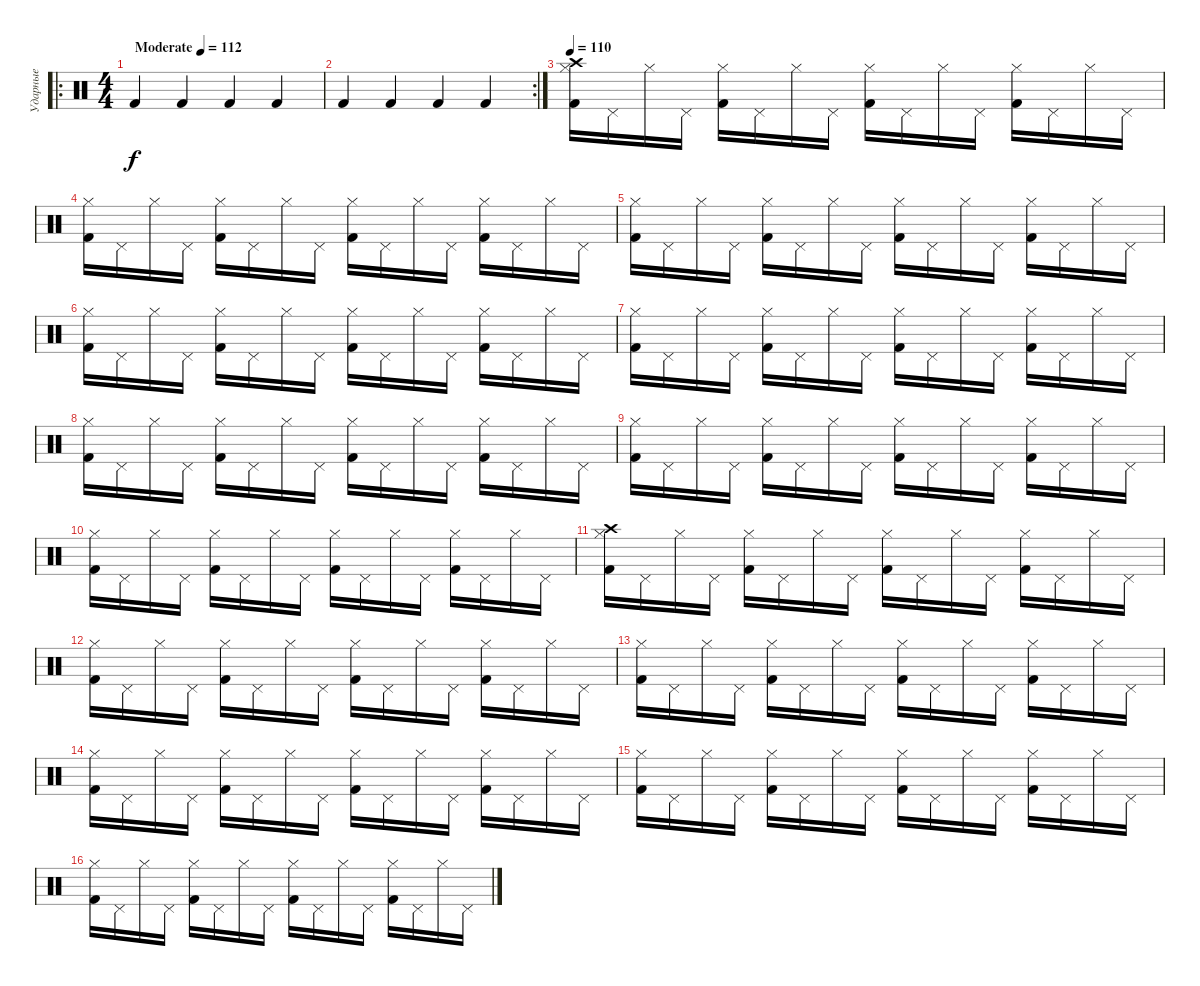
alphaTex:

\track ("Ударные" "Ударные") {instrument percussion}
\staff {score}
\articulation defaults
\ro
\ts (4 4)
\tempo (112 "Moderate")
\clef neutral
\ks c "Kick (hit) 2".4{dy f} "Kick (hit) 2".4 "Kick (hit) 2".4 "Kick (hit) 2".4
|
\rc 2 "Kick (hit) 2".4 "Kick (hit) 2".4 "Kick (hit) 2".4 "Kick (hit) 2".4
|
\tempo 112
\tempo 110
("Crash high (hit)" "Hi-Hat (closed)" "Kick (hit) 2").16 "Pedal Hi-Hat (hit)".16 "Hi-Hat (closed)".16 "Pedal Hi-Hat (hit)".16 ("Hi-Hat (closed)" "Kick (hit) 2").16 "Pedal Hi-Hat (hit)".16 "Hi-Hat (closed)".16 "Pedal Hi-Hat (hit)".16 ("Hi-Hat (closed)" "Kick (hit) 2").16 "Pedal Hi-Hat (hit)".16 "Hi-Hat (closed)".16 "Pedal Hi-Hat (hit)".16 ("Hi-Hat (closed)" "Kick (hit) 2").16 "Pedal Hi-Hat (hit)".16 "Hi-Hat (closed)".16 "Pedal Hi-Hat (hit)".16 |
("Hi-Hat (closed)" "Kick (hit) 2").16 "Pedal Hi-Hat (hit)".16 "Hi-Hat (closed)".16 "Pedal Hi-Hat (hit)".16 ("Hi-Hat (closed)" "Kick (hit) 2").16 "Pedal Hi-Hat (hit)".16 "Hi-Hat (closed)".16 "Pedal Hi-Hat (hit)".16 ("Hi-Hat (closed)" "Kick (hit) 2").16 "Pedal Hi-Hat (hit)".16 "Hi-Hat (closed)".16 "Pedal Hi-Hat (hit)".16 ("Hi-Hat (closed)" "Kick (hit) 2").16 "Pedal Hi-Hat (hit)".16 "Hi-Hat (closed)".16 "Pedal Hi-Hat (hit)".16 |
("Hi-Hat (closed)" "Kick (hit) 2").16 "Pedal Hi-Hat (hit)".16 "Hi-Hat (closed)".16 "Pedal Hi-Hat (hit)".16 ("Hi-Hat (closed)" "Kick (hit) 2").16 "Pedal Hi-Hat (hit)".16 "Hi-Hat (closed)".16 "Pedal Hi-Hat (hit)".16 ("Hi-Hat (closed)" "Kick (hit) 2").16 "Pedal Hi-Hat (hit)".16 "Hi-Hat (closed)".16 "Pedal Hi-Hat (hit)".16 ("Hi-Hat (closed)" "Kick (hit) 2").16 "Pedal Hi-Hat (hit)".16 "Hi-Hat (closed)".16 "Pedal Hi-Hat (hit)".16 |
("Hi-Hat (closed)" "Kick (hit) 2").16 "Pedal Hi-Hat (hit)".16 "Hi-Hat (closed)".16 "Pedal Hi-Hat (hit)".16 ("Hi-Hat (closed)" "Kick (hit) 2").16 "Pedal Hi-Hat (hit)".16 "Hi-Hat (closed)".16 "Pedal Hi-Hat (hit)".16 ("Hi-Hat (closed)" "Kick (hit) 2").16 "Pedal Hi-Hat (hit)".16 "Hi-Hat (closed)".16 "Pedal Hi-Hat (hit)".16 ("Hi-Hat (closed)" "Kick (hit) 2").16 "Pedal Hi-Hat (hit)".16 "Hi-Hat (closed)".16 "Pedal Hi-Hat (hit)".16 |
("Hi-Hat (closed)" "Kick (hit) 2").16 "Pedal Hi-Hat (hit)".16 "Hi-Hat (closed)".16 "Pedal Hi-Hat (hit)".16 ("Hi-Hat (closed)" "Kick (hit) 2").16 "Pedal Hi-Hat (hit)".16 "Hi-Hat (closed)".16 "Pedal Hi-Hat (hit)".16 ("Hi-Hat (closed)" "Kick (hit) 2").16 "Pedal Hi-Hat (hit)".16 "Hi-Hat (closed)".16 "Pedal Hi-Hat (hit)".16 ("Hi-Hat (closed)" "Kick (hit) 2").16 "Pedal Hi-Hat (hit)".16 "Hi-Hat (closed)".16 "Pedal Hi-Hat (hit)".16 |
("Hi-Hat (closed)" "Kick (hit) 2").16 "Pedal Hi-Hat (hit)".16 "Hi-Hat (closed)".16 "Pedal Hi-Hat (hit)".16 ("Hi-Hat (closed)" "Kick (hit) 2").16 "Pedal Hi-Hat (hit)".16 "Hi-Hat (closed)".16 "Pedal Hi-Hat (hit)".16 ("Hi-Hat (closed)" "Kick (hit) 2").16 "Pedal Hi-Hat (hit)".16 "Hi-Hat (closed)".16 "Pedal Hi-Hat (hit)".16 ("Hi-Hat (closed)" "Kick (hit) 2").16 "Pedal Hi-Hat (hit)".16 "Hi-Hat (closed)".16 "Pedal Hi-Hat (hit)".16 |
("Hi-Hat (closed)" "Kick (hit) 2").16 "Pedal Hi-Hat (hit)".16 "Hi-Hat (closed)".16 "Pedal Hi-Hat (hit)".16 ("Hi-Hat (closed)" "Kick (hit) 2").16 "Pedal Hi-Hat (hit)".16 "Hi-Hat (closed)".16 "Pedal Hi-Hat (hit)".16 ("Hi-Hat (closed)" "Kick (hit) 2").16 "Pedal Hi-Hat (hit)".16 "Hi-Hat (closed)".16 "Pedal Hi-Hat (hit)".16 ("Hi-Hat (closed)" "Kick (hit) 2").16 "Pedal Hi-Hat (hit)".16 "Hi-Hat (closed)".16 "Pedal Hi-Hat (hit)".16 |
("Hi-Hat (closed)" "Kick (hit) 2").16 "Pedal Hi-Hat (hit)".16 "Hi-Hat (closed)".16 "Pedal Hi-Hat (hit)".16 ("Hi-Hat (closed)" "Kick (hit) 2").16 "Pedal Hi-Hat (hit)".16 "Hi-Hat (closed)".16 "Pedal Hi-Hat (hit)".16 ("Hi-Hat (closed)" "Kick (hit) 2").16 "Pedal Hi-Hat (hit)".16 "Hi-Hat (closed)".16 "Pedal Hi-Hat (hit)".16 ("Hi-Hat (closed)" "Kick (hit) 2").16 "Pedal Hi-Hat (hit)".16 "Hi-Hat (closed)".16 "Pedal Hi-Hat (hit)".16 |
("Crash high (hit)" "Hi-Hat (closed)" "Kick (hit) 2").16 "Pedal Hi-Hat (hit)".16 "Hi-Hat (closed)".16 "Pedal Hi-Hat (hit)".16 ("Hi-Hat (closed)" "Kick (hit) 2").16 "Pedal Hi-Hat (hit)".16 "Hi-Hat (closed)".16 "Pedal Hi-Hat (hit)".16 ("Hi-Hat (closed)" "Kick (hit) 2").16 "Pedal Hi-Hat (hit)".16 "Hi-Hat (closed)".16 "Pedal Hi-Hat (hit)".16 ("Hi-Hat (closed)" "Kick (hit) 2").16 "Pedal Hi-Hat (hit)".16 "Hi-Hat (closed)".16 "Pedal Hi-Hat (hit)".16 |
("Hi-Hat (closed)" "Kick (hit) 2").16 "Pedal Hi-Hat (hit)".16 "Hi-Hat (closed)".16 "Pedal Hi-Hat (hit)".16 ("Hi-Hat (closed)" "Kick (hit) 2").16 "Pedal Hi-Hat (hit)".16 "Hi-Hat (closed)".16 "Pedal Hi-Hat (hit)".16 ("Hi-Hat (closed)" "Kick (hit) 2").16 "Pedal Hi-Hat (hit)".16 "Hi-Hat (closed)".16 "Pedal Hi-Hat (hit)".16 ("Hi-Hat (closed)" "Kick (hit) 2").16 "Pedal Hi-Hat (hit)".16 "Hi-Hat (closed)".16 "Pedal Hi-Hat (hit)".16 |
("Hi-Hat (closed)" "Kick (hit) 2").16 "Pedal Hi-Hat (hit)".16 "Hi-Hat (closed)".16 "Pedal Hi-Hat (hit)".16 ("Hi-Hat (closed)" "Kick (hit) 2").16 "Pedal Hi-Hat (hit)".16 "Hi-Hat (closed)".16 "Pedal Hi-Hat (hit)".16 ("Hi-Hat (closed)" "Kick (hit) 2").16 "Pedal Hi-Hat (hit)".16 "Hi-Hat (closed)".16 "Pedal Hi-Hat (hit)".16 ("Hi-Hat (closed)" "Kick (hit) 2").16 "Pedal Hi-Hat (hit)".16 "Hi-Hat (closed)".16 "Pedal Hi-Hat (hit)".16 |
("Hi-Hat (closed)" "Kick (hit) 2").16 "Pedal Hi-Hat (hit)".16 "Hi-Hat (closed)".16 "Pedal Hi-Hat (hit)".16 ("Hi-Hat (closed)" "Kick (hit) 2").16 "Pedal Hi-Hat (hit)".16 "Hi-Hat (closed)".16 "Pedal Hi-Hat (hit)".16 ("Hi-Hat (closed)" "Kick (hit) 2").16 "Pedal Hi-Hat (hit)".16 "Hi-Hat (closed)".16 "Pedal Hi-Hat (hit)".16 ("Hi-Hat (closed)" "Kick (hit) 2").16 "Pedal Hi-Hat (hit)".16 "Hi-Hat (closed)".16 "Pedal Hi-Hat (hit)".16 |
("Hi-Hat (closed)" "Kick (hit) 2").16 "Pedal Hi-Hat (hit)".16 "Hi-Hat (closed)".16 "Pedal Hi-Hat (hit)".16 ("Hi-Hat (closed)" "Kick (hit) 2").16 "Pedal Hi-Hat (hit)".16 "Hi-Hat (closed)".16 "Pedal Hi-Hat (hit)".16 ("Hi-Hat (closed)" "Kick (hit) 2").16 "Pedal Hi-Hat (hit)".16 "Hi-Hat (closed)".16 "Pedal Hi-Hat (hit)".16 ("Hi-Hat (closed)" "Kick (hit) 2").16 "Pedal Hi-Hat (hit)".16 "Hi-Hat (closed)".16 "Pedal Hi-Hat (hit)".16 |
("Hi-Hat (closed)" "Kick (hit) 2").16 "Pedal Hi-Hat (hit)".16 "Hi-Hat (closed)".16 "Pedal Hi-Hat (hit)".16 ("Hi-Hat (closed)" "Kick (hit) 2").16 "Pedal Hi-Hat (hit)".16 "Hi-Hat (closed)".16 "Pedal Hi-Hat (hit)".16 ("Hi-Hat (closed)" "Kick (hit) 2").16 "Pedal Hi-Hat (hit)".16 "Hi-Hat (closed)".16 "Pedal Hi-Hat (hit)".16 ("Hi-Hat (closed)" "Kick (hit) 2").16 "Pedal Hi-Hat (hit)".16 "Hi-Hat (closed)".16 "Pedal Hi-Hat (hit)".16
